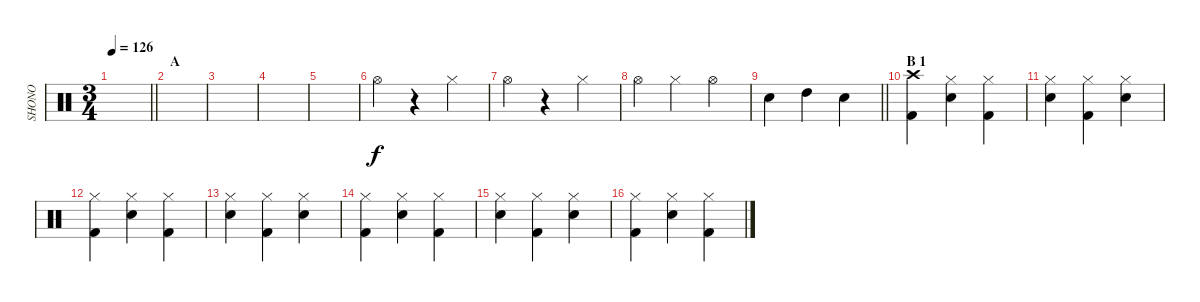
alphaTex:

\track ("SHONO" "SHONO") {instrument percussion}
\staff {score}
\articulation defaults
\ts (3 4)
\tempo 126
\clef neutral
\barLineRight lightlight
\ks c
|
\section ("" "A")
|
|
|
|
"Hi-Hat (open)".4 r.4 "Hi-Hat (closed)".4 |
"Hi-Hat (open)".4 r.4 "Hi-Hat (closed)".4 |
"Hi-Hat (open)".4 "Hi-Hat (closed)".4 "Hi-Hat (open)".4 |
\barLineRight lightlight "Snare (hit) 2".4 "High Tom (hit)".4 "Snare (hit) 2".4
|
\section ("" "B 1")
("Crash high (hit)" "Kick (hit) 2").4 ("Hi-Hat (closed)" "Snare (hit) 2").4 ("Hi-Hat (closed)" "Kick (hit) 2").4 |
("Hi-Hat (closed)" "Snare (hit) 2").4 ("Hi-Hat (closed)" "Kick (hit) 2").4 ("Hi-Hat (closed)" "Snare (hit) 2").4 |
("Hi-Hat (closed)" "Kick (hit) 2").4 ("Hi-Hat (closed)" "Snare (hit) 2").4 ("Hi-Hat (closed)" "Kick (hit) 2").4 |
("Hi-Hat (closed)" "Snare (hit) 2").4 ("Hi-Hat (closed)" "Kick (hit) 2").4 ("Hi-Hat (closed)" "Snare (hit) 2").4 |
("Hi-Hat (closed)" "Kick (hit) 2").4 ("Hi-Hat (closed)" "Snare (hit) 2").4 ("Hi-Hat (closed)" "Kick (hit) 2").4 |
("Hi-Hat (closed)" "Snare (hit) 2").4 ("Hi-Hat (closed)" "Kick (hit) 2").4 ("Hi-Hat (closed)" "Snare (hit) 2").4 |
("Hi-Hat (closed)" "Kick (hit) 2").4 ("Hi-Hat (closed)" "Snare (hit) 2").4 ("Hi-Hat (closed)" "Kick (hit) 2").4
